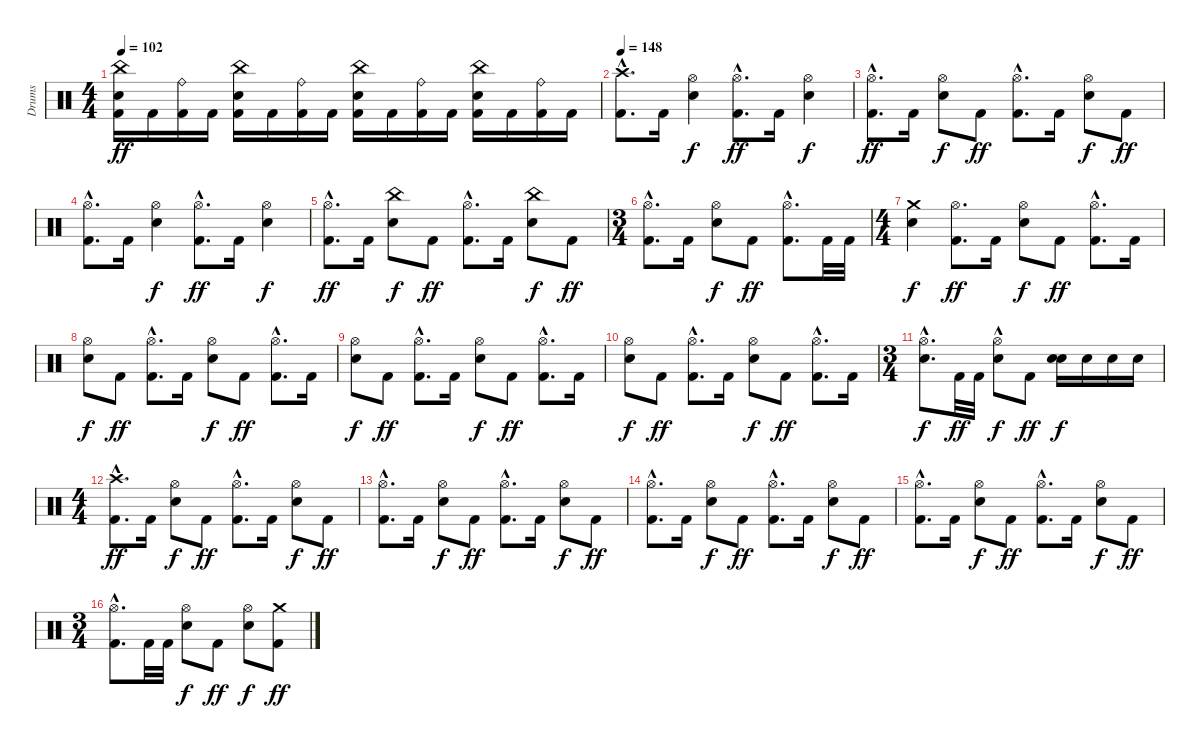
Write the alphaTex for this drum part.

\track ("Drums" "Drums") {instrument percussion}
\staff {score}
\articulation defaults
\ts (4 4)
\tempo 102
\clef neutral
\ks c
("Electric Snare (hit)" "China (hit)" "Kick (hit) 2").16{dy ff} "Kick (hit) 2".16 ("Ride (bell)" "Kick (hit) 2").16 "Kick (hit) 2".16 ("Electric Snare (hit)" "China (hit)" "Kick (hit) 2").16 "Kick (hit) 2".16 ("Ride (bell)" "Kick (hit) 2").16 "Kick (hit) 2".16 ("China (hit)" "Electric Snare (hit)" "Kick (hit) 2").16 "Kick (hit) 2".16 ("Ride (bell)" "Kick (hit) 2").16 "Kick (hit) 2".16 ("China (hit)" "Electric Snare (hit)" "Kick (hit) 2").16 "Kick (hit) 2".16 ("Ride (bell)" "Kick (hit) 2").16 "Kick (hit) 2".16 |
\tempo 148
("Crash high (hit)" "Kick (hit) 2"{hac}).8{d} "Kick (hit) 2".16 ("Electric Snare (hit)" "Hi-Hat (open)").4{dy f} ("Hi-Hat (open)" "Kick (hit) 2"{hac}).8{d dy ff} "Kick (hit) 2".16 ("Hi-Hat (open)" "Electric Snare (hit)").4{dy f} |
("Hi-Hat (open)" "Kick (hit) 2"{hac}).8{d dy ff} "Kick (hit) 2".16 ("Hi-Hat (open)" "Electric Snare (hit)").8{dy f} "Kick (hit) 2".8{dy ff} ("Hi-Hat (open)" "Kick (hit) 2"{hac}).8{d} "Kick (hit) 2".16 ("Hi-Hat (open)" "Electric Snare (hit)").8{dy f} "Kick (hit) 2".8{dy ff} |
("Hi-Hat (open)" "Kick (hit) 2"{hac}).8{d} "Kick (hit) 2".16 ("Electric Snare (hit)" "Hi-Hat (open)").4{dy f} ("Hi-Hat (open)" "Kick (hit) 2"{hac}).8{d dy ff} "Kick (hit) 2".16 ("Hi-Hat (open)" "Electric Snare (hit)").4{dy f} |
("Hi-Hat (open)" "Kick (hit) 2"{hac}).8{d dy ff} "Kick (hit) 2".16 ("Electric Snare (hit)" "China (hit)").8{dy f} "Kick (hit) 2".8{dy ff} ("Hi-Hat (open)" "Kick (hit) 2"{hac}).8{d} "Kick (hit) 2".16 ("Electric Snare (hit)" "China (hit)").8{dy f} "Kick (hit) 2".8{dy ff} |
\ts (3 4)
("Hi-Hat (open)" "Kick (hit) 2"{hac}).8{d} "Kick (hit) 2".16 ("Electric Snare (hit)" "Hi-Hat (open)").8{dy f} "Kick (hit) 2".8{dy ff} ("Hi-Hat (open)" "Kick (hit) 2"{hac}).8{d} "Kick (hit) 2".32 "Kick (hit) 2".32 |
\ts (4 4)
("Electric Snare (hit)" "Crash medium (hit)").4{dy f} ("Hi-Hat (open)" "Kick (hit) 2").8{d dy ff} "Kick (hit) 2".16 ("Hi-Hat (open)" "Electric Snare (hit)").8{dy f} "Kick (hit) 2".8{dy ff} ("Hi-Hat (open)" "Kick (hit) 2"{hac}).8{d} "Kick (hit) 2".16 |
("Hi-Hat (open)" "Electric Snare (hit)").8{dy f} "Kick (hit) 2".8{dy ff} ("Hi-Hat (open)" "Kick (hit) 2"{hac}).8{d} "Kick (hit) 2".16 ("Hi-Hat (open)" "Electric Snare (hit)").8{dy f} "Kick (hit) 2".8{dy ff} ("Hi-Hat (open)" "Kick (hit) 2"{hac}).8{d} "Kick (hit) 2".16 |
("Hi-Hat (open)" "Electric Snare (hit)").8{dy f} "Kick (hit) 2".8{dy ff} ("Hi-Hat (open)" "Kick (hit) 2"{hac}).8{d} "Kick (hit) 2".16 ("Hi-Hat (open)" "Electric Snare (hit)").8{dy f} "Kick (hit) 2".8{dy ff} ("Hi-Hat (open)" "Kick (hit) 2"{hac}).8{d} "Kick (hit) 2".16 |
("Electric Snare (hit)" "Hi-Hat (open)").8{dy f} "Kick (hit) 2".8{dy ff} ("Hi-Hat (open)" "Kick (hit) 2"{hac}).8{d} "Kick (hit) 2".16 ("Electric Snare (hit)" "Hi-Hat (open)").8{dy f} "Kick (hit) 2".8{dy ff} ("Hi-Hat (open)" "Kick (hit) 2"{hac}).8{d} "Kick (hit) 2".16 |
\ts (3 4)
("Hi-Hat (open)" "Electric Snare (hit)"{hac}).8{d dy f} "Kick (hit) 2".32{dy ff} "Kick (hit) 2".32 ("Hi-Hat (open)" "Electric Snare (hit)"{hac}).8{dy f} "Kick (hit) 2".8{dy ff} ("Electric Snare (hit)" "Electric Snare (hit)").16{dy f} "Electric Snare (hit)".16 "Electric Snare (hit)".16 "Electric Snare (hit)".16 |
\ts (4 4)
("Crash high (hit)" "Kick (hit) 2"{hac}).8{d dy ff} "Kick (hit) 2".16 ("Hi-Hat (open)" "Electric Snare (hit)").8{dy f} "Kick (hit) 2".8{dy ff} ("Hi-Hat (open)" "Kick (hit) 2"{hac}).8{d} "Kick (hit) 2".16 ("Hi-Hat (open)" "Electric Snare (hit)").8{dy f} "Kick (hit) 2".8{dy ff} |
("Hi-Hat (open)" "Kick (hit) 2"{hac}).8{d} "Kick (hit) 2".16 ("Hi-Hat (open)" "Electric Snare (hit)").8{dy f} "Kick (hit) 2".8{dy ff} ("Hi-Hat (open)" "Kick (hit) 2"{hac}).8{d} "Kick (hit) 2".16 ("Hi-Hat (open)" "Electric Snare (hit)").8{dy f} "Kick (hit) 2".8{dy ff} |
("Hi-Hat (open)" "Kick (hit) 2"{hac}).8{d} "Kick (hit) 2".16 ("Hi-Hat (open)" "Electric Snare (hit)").8{dy f} "Kick (hit) 2".8{dy ff} ("Hi-Hat (open)" "Kick (hit) 2"{hac}).8{d} "Kick (hit) 2".16 ("Electric Snare (hit)" "Hi-Hat (open)").8{dy f} "Kick (hit) 2".8{dy ff} |
("Hi-Hat (open)" "Kick (hit) 2"{hac}).8{d} "Kick (hit) 2".16 ("Electric Snare (hit)" "Hi-Hat (open)").8{dy f} "Kick (hit) 2".8{dy ff} ("Hi-Hat (open)" "Kick (hit) 2"{hac}).8{d} "Kick (hit) 2".16 ("Hi-Hat (open)" "Electric Snare (hit)").8{dy f} "Kick (hit) 2".8{dy ff} |
\ts (3 4)
("Hi-Hat (open)" "Kick (hit) 2"{hac}).8{d} "Kick (hit) 2".32 "Kick (hit) 2".32 ("Hi-Hat (open)" "Electric Snare (hit)").8{dy f} "Kick (hit) 2".8{dy ff} ("Hi-Hat (open)" "Electric Snare (hit)").8{dy f} ("Crash medium (hit)" "Kick (hit) 2").8{dy ff}
